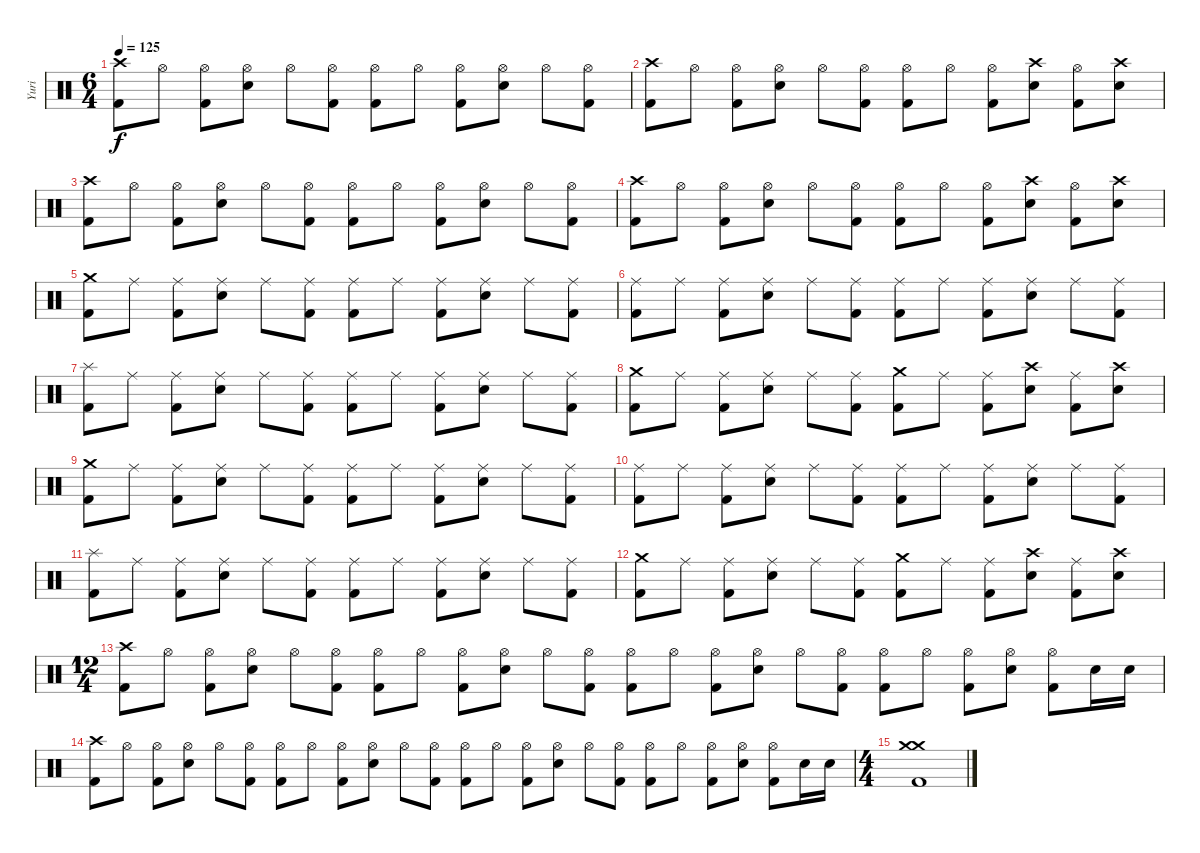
\track ("Yuri" "Yuri") {instrument percussion}
\staff {score}
\articulation defaults
\ts (6 4)
\tempo 125
\clef neutral
\ks c
("Crash high (hit)" "Kick (hit) 2").8{dy f} "Hi-Hat (open)".8 ("Hi-Hat (open)" "Kick (hit) 2").8 ("Hi-Hat (open)" "Electric Snare (hit)").8 "Hi-Hat (open)".8 ("Hi-Hat (open)" "Kick (hit) 2").8 ("Hi-Hat (open)" "Kick (hit) 2").8 "Hi-Hat (open)".8 ("Hi-Hat (open)" "Kick (hit) 2").8 ("Hi-Hat (open)" "Electric Snare (hit)").8 "Hi-Hat (open)".8 ("Hi-Hat (open)" "Kick (hit) 2").8 |
("Crash high (hit)" "Kick (hit) 2").8 "Hi-Hat (open)".8 ("Hi-Hat (open)" "Kick (hit) 2").8 ("Hi-Hat (open)" "Electric Snare (hit)").8 "Hi-Hat (open)".8 ("Hi-Hat (open)" "Kick (hit) 2").8 ("Hi-Hat (open)" "Kick (hit) 2").8 "Hi-Hat (open)".8 ("Hi-Hat (open)" "Kick (hit) 2").8 ("Crash high (hit)" "Electric Snare (hit)").8 ("Hi-Hat (open)" "Kick (hit) 2").8 ("Crash high (hit)" "Electric Snare (hit)").8 |
("Crash high (hit)" "Kick (hit) 2").8 "Hi-Hat (open)".8 ("Hi-Hat (open)" "Kick (hit) 2").8 ("Hi-Hat (open)" "Electric Snare (hit)").8 "Hi-Hat (open)".8 ("Hi-Hat (open)" "Kick (hit) 2").8 ("Hi-Hat (open)" "Kick (hit) 2").8 "Hi-Hat (open)".8 ("Hi-Hat (open)" "Kick (hit) 2").8 ("Hi-Hat (open)" "Electric Snare (hit)").8 "Hi-Hat (open)".8 ("Hi-Hat (open)" "Kick (hit) 2").8 |
("Crash high (hit)" "Kick (hit) 2").8 "Hi-Hat (open)".8 ("Hi-Hat (open)" "Kick (hit) 2").8 ("Hi-Hat (open)" "Electric Snare (hit)").8 "Hi-Hat (open)".8 ("Hi-Hat (open)" "Kick (hit) 2").8 ("Hi-Hat (open)" "Kick (hit) 2").8 "Hi-Hat (open)".8 ("Hi-Hat (open)" "Kick (hit) 2").8 ("Crash high (hit)" "Electric Snare (hit)").8 ("Hi-Hat (open)" "Kick (hit) 2").8 ("Crash high (hit)" "Electric Snare (hit)").8 |
("Crash medium (hit)" "Kick (hit) 2").8 "Ride (middle)".8 ("Ride (middle)" "Kick (hit) 2").8 ("Ride (middle)" "Electric Snare (hit)").8 "Ride (middle)".8 ("Ride (middle)" "Kick (hit) 2").8 ("Ride (middle)" "Kick (hit) 2").8 "Ride (middle)".8 ("Ride (middle)" "Kick (hit) 2").8 ("Ride (middle)" "Electric Snare (hit)").8 "Ride (middle)".8 ("Ride (middle)" "Kick (hit) 2").8 |
("Ride (middle)" "Kick (hit) 2").8 "Ride (middle)".8 ("Ride (middle)" "Kick (hit) 2").8 ("Ride (middle)" "Electric Snare (hit)").8 "Ride (middle)".8 ("Ride (middle)" "Kick (hit) 2").8 ("Ride (middle)" "Kick (hit) 2").8 "Ride (middle)".8 ("Ride (middle)" "Kick (hit) 2").8 ("Ride (middle)" "Electric Snare (hit)").8 "Ride (middle)".8 ("Ride (middle)" "Kick (hit) 2").8 |
("Splash (hit)" "Kick (hit) 2").8 "Ride (middle)".8 ("Ride (middle)" "Kick (hit) 2").8 ("Ride (middle)" "Electric Snare (hit)").8 "Ride (middle)".8 ("Ride (middle)" "Kick (hit) 2").8 ("Ride (middle)" "Kick (hit) 2").8 "Ride (middle)".8 ("Ride (middle)" "Kick (hit) 2").8 ("Ride (middle)" "Electric Snare (hit)").8 "Ride (middle)".8 ("Ride (middle)" "Kick (hit) 2").8 |
("Crash medium (hit)" "Kick (hit) 2").8 "Ride (middle)".8 ("Ride (middle)" "Kick (hit) 2").8 ("Ride (middle)" "Electric Snare (hit)").8 "Ride (middle)".8 ("Ride (middle)" "Kick (hit) 2").8 ("Crash medium (hit)" "Kick (hit) 2").8 "Ride (middle)".8 ("Ride (middle)" "Kick (hit) 2").8 ("Crash high (hit)" "Electric Snare (hit)").8 ("Ride (middle)" "Kick (hit) 2").8 ("Crash high (hit)" "Electric Snare (hit)").8 |
("Crash medium (hit)" "Kick (hit) 2").8 "Ride (middle)".8 ("Ride (middle)" "Kick (hit) 2").8 ("Ride (middle)" "Electric Snare (hit)").8 "Ride (middle)".8 ("Ride (middle)" "Kick (hit) 2").8 ("Ride (middle)" "Kick (hit) 2").8 "Ride (middle)".8 ("Ride (middle)" "Kick (hit) 2").8 ("Ride (middle)" "Electric Snare (hit)").8 "Ride (middle)".8 ("Ride (middle)" "Kick (hit) 2").8 |
("Ride (middle)" "Kick (hit) 2").8 "Ride (middle)".8 ("Ride (middle)" "Kick (hit) 2").8 ("Ride (middle)" "Electric Snare (hit)").8 "Ride (middle)".8 ("Ride (middle)" "Kick (hit) 2").8 ("Ride (middle)" "Kick (hit) 2").8 "Ride (middle)".8 ("Ride (middle)" "Kick (hit) 2").8 ("Ride (middle)" "Electric Snare (hit)").8 "Ride (middle)".8 ("Ride (middle)" "Kick (hit) 2").8 |
("Splash (hit)" "Kick (hit) 2").8 "Ride (middle)".8 ("Ride (middle)" "Kick (hit) 2").8 ("Ride (middle)" "Electric Snare (hit)").8 "Ride (middle)".8 ("Ride (middle)" "Kick (hit) 2").8 ("Ride (middle)" "Kick (hit) 2").8 "Ride (middle)".8 ("Ride (middle)" "Kick (hit) 2").8 ("Ride (middle)" "Electric Snare (hit)").8 "Ride (middle)".8 ("Ride (middle)" "Kick (hit) 2").8 |
("Crash medium (hit)" "Kick (hit) 2").8 "Ride (middle)".8 ("Ride (middle)" "Kick (hit) 2").8 ("Ride (middle)" "Electric Snare (hit)").8 "Ride (middle)".8 ("Ride (middle)" "Kick (hit) 2").8 ("Crash medium (hit)" "Kick (hit) 2").8 "Ride (middle)".8 ("Ride (middle)" "Kick (hit) 2").8 ("Crash high (hit)" "Electric Snare (hit)").8 ("Ride (middle)" "Kick (hit) 2").8 ("Crash high (hit)" "Electric Snare (hit)").8 |
\ts (12 4)
("Crash high (hit)" "Kick (hit) 2").8 "Hi-Hat (open)".8 ("Hi-Hat (open)" "Kick (hit) 2").8 ("Hi-Hat (open)" "Electric Snare (hit)").8 "Hi-Hat (open)".8 ("Hi-Hat (open)" "Kick (hit) 2").8 ("Hi-Hat (open)" "Kick (hit) 2").8 "Hi-Hat (open)".8 ("Hi-Hat (open)" "Kick (hit) 2").8 ("Hi-Hat (open)" "Electric Snare (hit)").8 "Hi-Hat (open)".8 ("Hi-Hat (open)" "Kick (hit) 2").8 ("Hi-Hat (open)" "Kick (hit) 2").8 "Hi-Hat (open)".8 ("Hi-Hat (open)" "Kick (hit) 2").8 ("Hi-Hat (open)" "Electric Snare (hit)").8 "Hi-Hat (open)".8 ("Hi-Hat (open)" "Kick (hit) 2").8 ("Hi-Hat (open)" "Kick (hit) 2").8 "Hi-Hat (open)".8 ("Hi-Hat (open)" "Kick (hit) 2").8 ("Hi-Hat (open)" "Electric Snare (hit)").8 ("Hi-Hat (open)" "Kick (hit) 2").8 "Electric Snare (hit)".16 "Electric Snare (hit)".16 |
("Crash high (hit)" "Kick (hit) 2").8 "Hi-Hat (open)".8 ("Hi-Hat (open)" "Kick (hit) 2").8 ("Hi-Hat (open)" "Electric Snare (hit)").8 "Hi-Hat (open)".8 ("Hi-Hat (open)" "Kick (hit) 2").8 ("Hi-Hat (open)" "Kick (hit) 2").8 "Hi-Hat (open)".8 ("Hi-Hat (open)" "Kick (hit) 2").8 ("Hi-Hat (open)" "Electric Snare (hit)").8 "Hi-Hat (open)".8 ("Hi-Hat (open)" "Kick (hit) 2").8 ("Hi-Hat (open)" "Kick (hit) 2").8 "Hi-Hat (open)".8 ("Hi-Hat (open)" "Kick (hit) 2").8 ("Hi-Hat (open)" "Electric Snare (hit)").8 "Hi-Hat (open)".8 ("Hi-Hat (open)" "Kick (hit) 2").8 ("Hi-Hat (open)" "Kick (hit) 2").8 "Hi-Hat (open)".8 ("Hi-Hat (open)" "Kick (hit) 2").8 ("Hi-Hat (open)" "Electric Snare (hit)").8 ("Hi-Hat (open)" "Kick (hit) 2").8 "Electric Snare (hit)".16 "Electric Snare (hit)".16 |
\ts (4 4)
("Crash medium (hit)" "Crash medium (hit)" "Kick (hit) 2").1
